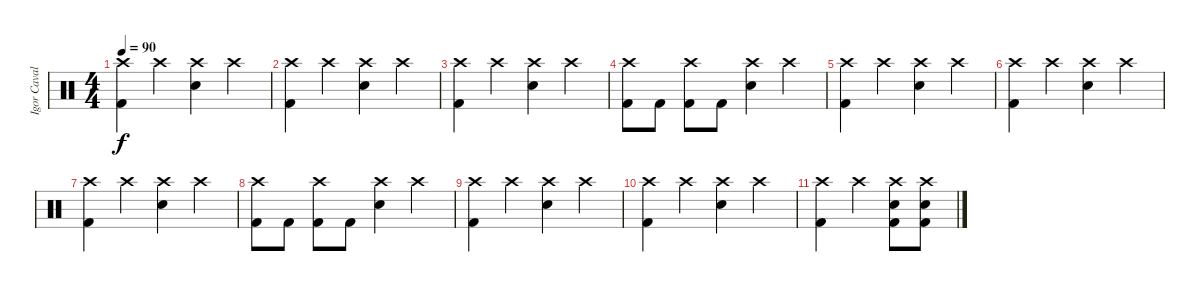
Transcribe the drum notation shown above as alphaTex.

\track ("Igor Cavalera" "Igor Caval") {instrument percussion}
\staff {score}
\articulation defaults
\ts (4 4)
\tempo 90
\clef neutral
\ks c
("Crash high (hit)" "Kick (hit) 2").4{dy f} "Crash high (hit)".4 ("Crash high (hit)" "Snare (hit) 2").4 "Crash high (hit)".4 |
("Crash high (hit)" "Kick (hit) 2").4 "Crash high (hit)".4 ("Crash high (hit)" "Snare (hit) 2").4 "Crash high (hit)".4 |
("Crash high (hit)" "Kick (hit) 2").4 "Crash high (hit)".4 ("Crash high (hit)" "Snare (hit) 2").4 "Crash high (hit)".4 |
("Crash high (hit)" "Kick (hit) 2").8 "Kick (hit) 2".8 ("Crash high (hit)" "Kick (hit) 2").8 "Kick (hit) 2".8 ("Crash high (hit)" "Snare (hit) 2").4 "Crash high (hit)".4 |
("Crash high (hit)" "Kick (hit) 2").4 "Crash high (hit)".4 ("Crash high (hit)" "Snare (hit) 2").4 "Crash high (hit)".4 |
("Crash high (hit)" "Kick (hit) 2").4 "Crash high (hit)".4 ("Crash high (hit)" "Snare (hit) 2").4 "Crash high (hit)".4 |
("Crash high (hit)" "Kick (hit) 2").4 "Crash high (hit)".4 ("Crash high (hit)" "Snare (hit) 2").4 "Crash high (hit)".4 |
("Crash high (hit)" "Kick (hit) 2").8 "Kick (hit) 2".8 ("Crash high (hit)" "Kick (hit) 2").8 "Kick (hit) 2".8 ("Crash high (hit)" "Snare (hit) 2").4 "Crash high (hit)".4 |
("Crash high (hit)" "Kick (hit) 2").4 "Crash high (hit)".4 ("Crash high (hit)" "Snare (hit) 2").4 "Crash high (hit)".4 |
("Crash high (hit)" "Kick (hit) 2").4 "Crash high (hit)".4 ("Crash high (hit)" "Snare (hit) 2").4 "Crash high (hit)".4 |
("Crash high (hit)" "Kick (hit) 2").4 "Crash high (hit)".4 ("Crash high (hit)" "Snare (hit) 2" "Kick (hit) 2").8 ("Crash high (hit)" "Snare (hit) 2" "Kick (hit) 2").8
